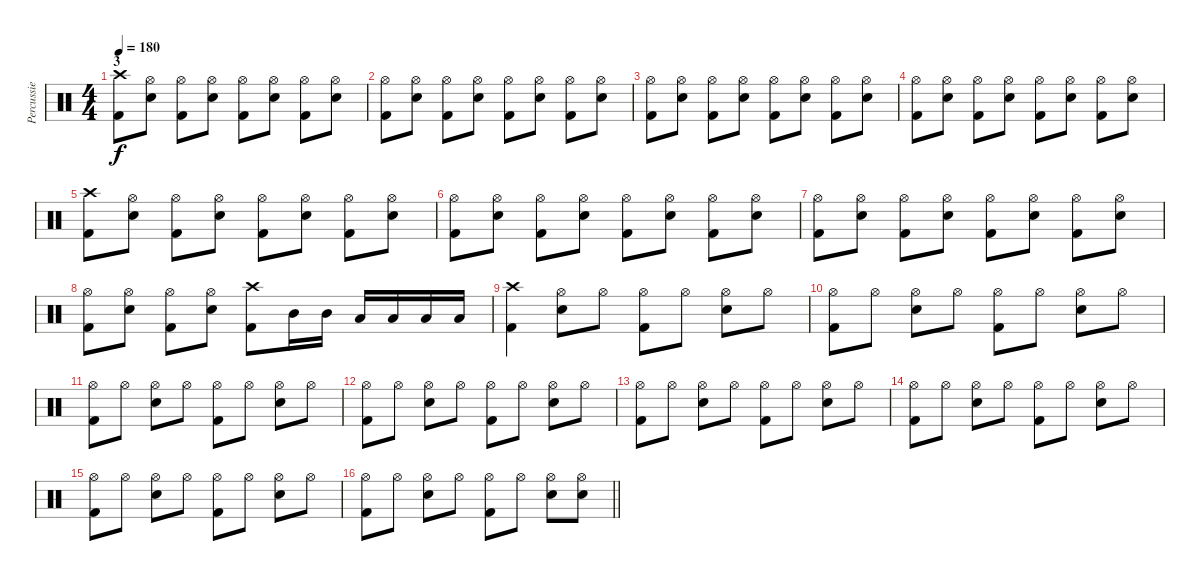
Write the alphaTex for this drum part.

\track ("Percussie" "Percussie") {instrument percussion}
\staff {score}
\articulation defaults
\ts (4 4)
\section ("" "3")
\tempo 180
\clef neutral
\ks c
("Crash high (hit)" "Kick (hit) 2").8{dy f} ("Hi-Hat (open)" "Snare (hit) 2").8 ("Hi-Hat (open)" "Kick (hit) 2").8 ("Hi-Hat (open)" "Snare (hit) 2").8 ("Hi-Hat (open)" "Kick (hit) 2").8 ("Hi-Hat (open)" "Snare (hit) 2").8 ("Hi-Hat (open)" "Kick (hit) 2").8 ("Hi-Hat (open)" "Snare (hit) 2").8 |
("Hi-Hat (open)" "Kick (hit) 2").8 ("Hi-Hat (open)" "Snare (hit) 2").8 ("Hi-Hat (open)" "Kick (hit) 2").8 ("Hi-Hat (open)" "Snare (hit) 2").8 ("Hi-Hat (open)" "Kick (hit) 2").8 ("Hi-Hat (open)" "Snare (hit) 2").8 ("Hi-Hat (open)" "Kick (hit) 2").8 ("Hi-Hat (open)" "Snare (hit) 2").8 |
("Hi-Hat (open)" "Kick (hit) 2").8 ("Hi-Hat (open)" "Snare (hit) 2").8 ("Hi-Hat (open)" "Kick (hit) 2").8 ("Hi-Hat (open)" "Snare (hit) 2").8 ("Hi-Hat (open)" "Kick (hit) 2").8 ("Hi-Hat (open)" "Snare (hit) 2").8 ("Hi-Hat (open)" "Kick (hit) 2").8 ("Hi-Hat (open)" "Snare (hit) 2").8 |
("Hi-Hat (open)" "Kick (hit) 2").8 ("Hi-Hat (open)" "Snare (hit) 2").8 ("Hi-Hat (open)" "Kick (hit) 2").8 ("Hi-Hat (open)" "Snare (hit) 2").8 ("Hi-Hat (open)" "Kick (hit) 2").8 ("Hi-Hat (open)" "Snare (hit) 2").8 ("Hi-Hat (open)" "Kick (hit) 2").8 ("Hi-Hat (open)" "Snare (hit) 2").8 |
("Crash high (hit)" "Kick (hit) 2").8 ("Hi-Hat (open)" "Snare (hit) 2").8 ("Hi-Hat (open)" "Kick (hit) 2").8 ("Hi-Hat (open)" "Snare (hit) 2").8 ("Hi-Hat (open)" "Kick (hit) 2").8 ("Hi-Hat (open)" "Snare (hit) 2").8 ("Hi-Hat (open)" "Kick (hit) 2").8 ("Hi-Hat (open)" "Snare (hit) 2").8 |
("Hi-Hat (open)" "Kick (hit) 2").8 ("Hi-Hat (open)" "Snare (hit) 2").8 ("Hi-Hat (open)" "Kick (hit) 2").8 ("Hi-Hat (open)" "Snare (hit) 2").8 ("Hi-Hat (open)" "Kick (hit) 2").8 ("Hi-Hat (open)" "Snare (hit) 2").8 ("Hi-Hat (open)" "Kick (hit) 2").8 ("Hi-Hat (open)" "Snare (hit) 2").8 |
("Hi-Hat (open)" "Kick (hit) 2").8 ("Hi-Hat (open)" "Snare (hit) 2").8 ("Hi-Hat (open)" "Kick (hit) 2").8 ("Hi-Hat (open)" "Snare (hit) 2").8 ("Hi-Hat (open)" "Kick (hit) 2").8 ("Hi-Hat (open)" "Snare (hit) 2").8 ("Hi-Hat (open)" "Kick (hit) 2").8 ("Hi-Hat (open)" "Snare (hit) 2").8 |
("Hi-Hat (open)" "Kick (hit) 2").8 ("Hi-Hat (open)" "Snare (hit) 2").8 ("Hi-Hat (open)" "Kick (hit) 2").8 ("Hi-Hat (open)" "Snare (hit) 2").8 ("Crash high (hit)" "Kick (hit) 2").8 "Mid Tom (hit)".16 "Mid Tom (hit)".16 "Low Tom (hit)".16 "Low Tom (hit)".16 "Low Tom (hit)".16 "Low Tom (hit)".16 |
("Crash high (hit)" "Kick (hit) 2").4 ("Hi-Hat (open)" "Snare (hit) 2").8 "Hi-Hat (open)".8 ("Hi-Hat (open)" "Kick (hit) 2").8 "Hi-Hat (open)".8 ("Hi-Hat (open)" "Snare (hit) 2").8 "Hi-Hat (open)".8 |
("Hi-Hat (open)" "Kick (hit) 2").8 "Hi-Hat (open)".8 ("Hi-Hat (open)" "Snare (hit) 2").8 "Hi-Hat (open)".8 ("Hi-Hat (open)" "Kick (hit) 2").8 "Hi-Hat (open)".8 ("Hi-Hat (open)" "Snare (hit) 2").8 "Hi-Hat (open)".8 |
("Hi-Hat (open)" "Kick (hit) 2").8 "Hi-Hat (open)".8 ("Hi-Hat (open)" "Snare (hit) 2").8 "Hi-Hat (open)".8 ("Hi-Hat (open)" "Kick (hit) 2").8 "Hi-Hat (open)".8 ("Hi-Hat (open)" "Snare (hit) 2").8 "Hi-Hat (open)".8 |
("Hi-Hat (open)" "Kick (hit) 2").8 "Hi-Hat (open)".8 ("Hi-Hat (open)" "Snare (hit) 2").8 "Hi-Hat (open)".8 ("Hi-Hat (open)" "Kick (hit) 2").8 "Hi-Hat (open)".8 ("Hi-Hat (open)" "Snare (hit) 2").8 "Hi-Hat (open)".8 |
("Hi-Hat (open)" "Kick (hit) 2").8 "Hi-Hat (open)".8 ("Hi-Hat (open)" "Snare (hit) 2").8 "Hi-Hat (open)".8 ("Hi-Hat (open)" "Kick (hit) 2").8 "Hi-Hat (open)".8 ("Hi-Hat (open)" "Snare (hit) 2").8 "Hi-Hat (open)".8 |
("Hi-Hat (open)" "Kick (hit) 2").8 "Hi-Hat (open)".8 ("Hi-Hat (open)" "Snare (hit) 2").8 "Hi-Hat (open)".8 ("Hi-Hat (open)" "Kick (hit) 2").8 "Hi-Hat (open)".8 ("Hi-Hat (open)" "Snare (hit) 2").8 "Hi-Hat (open)".8 |
("Hi-Hat (open)" "Kick (hit) 2").8 "Hi-Hat (open)".8 ("Hi-Hat (open)" "Snare (hit) 2").8 "Hi-Hat (open)".8 ("Hi-Hat (open)" "Kick (hit) 2").8 "Hi-Hat (open)".8 ("Hi-Hat (open)" "Snare (hit) 2").8 "Hi-Hat (open)".8 |
\barLineRight lightlight
("Hi-Hat (open)" "Kick (hit) 2").8 "Hi-Hat (open)".8 ("Hi-Hat (open)" "Snare (hit) 2").8 "Hi-Hat (open)".8 ("Hi-Hat (open)" "Kick (hit) 2").8 "Hi-Hat (open)".8 ("Hi-Hat (open)" "Snare (hit) 2").8 ("Hi-Hat (open)" "Snare (hit) 2").8
